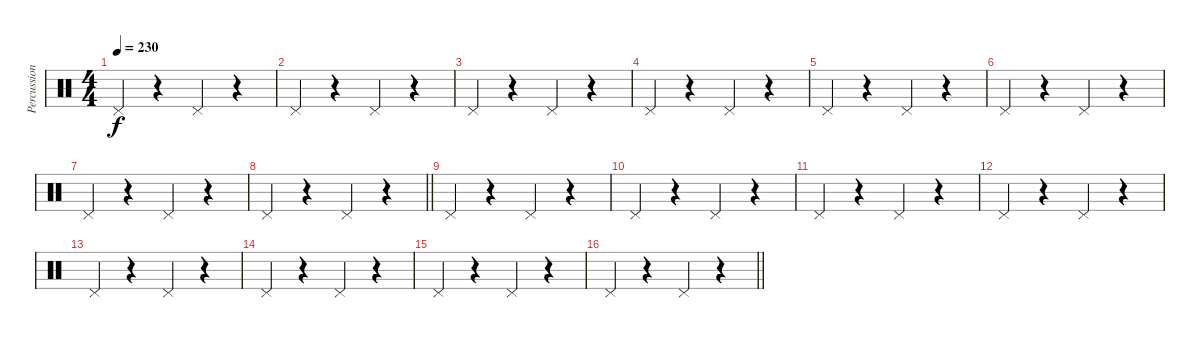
\track ("Percussion" "Percussion") {instrument percussion}
\staff {score}
\articulation defaults
\ts (4 4)
\tempo 230
\clef neutral
\ks c "Pedal Hi-Hat (hit)".4{dy f}
r.4 "Pedal Hi-Hat (hit)".4 r.4 |
"Pedal Hi-Hat (hit)".4 r.4 "Pedal Hi-Hat (hit)".4 r.4 |
"Pedal Hi-Hat (hit)".4 r.4 "Pedal Hi-Hat (hit)".4 r.4 |
"Pedal Hi-Hat (hit)".4 r.4 "Pedal Hi-Hat (hit)".4 r.4 |
"Pedal Hi-Hat (hit)".4 r.4 "Pedal Hi-Hat (hit)".4 r.4 |
"Pedal Hi-Hat (hit)".4 r.4 "Pedal Hi-Hat (hit)".4 r.4 |
"Pedal Hi-Hat (hit)".4 r.4 "Pedal Hi-Hat (hit)".4 r.4 |
\barLineRight lightlight "Pedal Hi-Hat (hit)".4
r.4 "Pedal Hi-Hat (hit)".4 r.4 |
\section ("" "")
"Pedal Hi-Hat (hit)".4 r.4 "Pedal Hi-Hat (hit)".4 r.4 |
"Pedal Hi-Hat (hit)".4 r.4 "Pedal Hi-Hat (hit)".4 r.4 |
"Pedal Hi-Hat (hit)".4 r.4 "Pedal Hi-Hat (hit)".4 r.4 |
"Pedal Hi-Hat (hit)".4 r.4 "Pedal Hi-Hat (hit)".4 r.4 |
"Pedal Hi-Hat (hit)".4 r.4 "Pedal Hi-Hat (hit)".4 r.4 |
"Pedal Hi-Hat (hit)".4 r.4 "Pedal Hi-Hat (hit)".4 r.4 |
"Pedal Hi-Hat (hit)".4 r.4 "Pedal Hi-Hat (hit)".4 r.4 |
\barLineRight lightlight "Pedal Hi-Hat (hit)".4
r.4 "Pedal Hi-Hat (hit)".4 r.4
